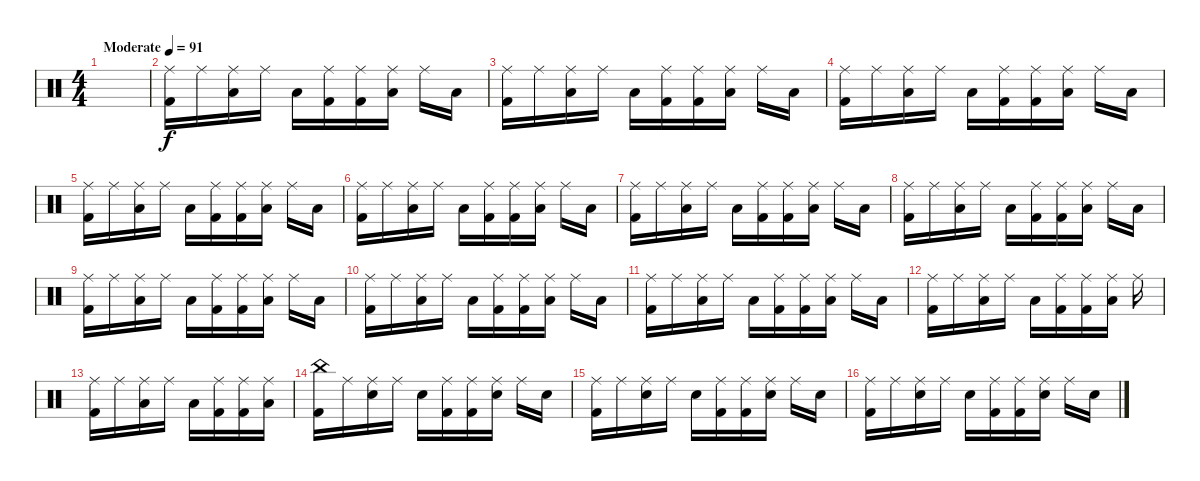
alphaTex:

\track "" {instrument percussion}
\staff {score}
\articulation defaults
\ts (4 4)
\tempo (91 "Moderate")
\clef neutral
\ks c
|
("Ride (middle)" "Kick (hit) 2").16 "Ride (middle)".16 ("Low Floor Tom (hit)" "Ride (middle)").16 "Ride (middle)".16 "Low Floor Tom (hit)".16 ("Ride (middle)" "Kick (hit) 2").16 ("Ride (middle)" "Kick (hit) 2").16 ("Ride (middle)" "Low Floor Tom (hit)").16 "Ride (middle)".16 "Low Floor Tom (hit)".16 |
("Ride (middle)" "Kick (hit) 2").16 "Ride (middle)".16 ("Low Floor Tom (hit)" "Ride (middle)").16 "Ride (middle)".16 "Low Floor Tom (hit)".16 ("Ride (middle)" "Kick (hit) 2").16 ("Ride (middle)" "Kick (hit) 2").16 ("Ride (middle)" "Low Floor Tom (hit)").16 "Ride (middle)".16 "Low Floor Tom (hit)".16 |
("Ride (middle)" "Kick (hit) 2").16 "Ride (middle)".16 ("Ride (middle)" "Low Floor Tom (hit)").16 "Ride (middle)".16 "Low Floor Tom (hit)".16 ("Ride (middle)" "Kick (hit) 2").16 ("Ride (middle)" "Kick (hit) 2").16 ("Ride (middle)" "Low Floor Tom (hit)").16 "Ride (middle)".16 "Low Floor Tom (hit)".16 |
("Kick (hit) 2" "Ride (middle)").16 "Ride (middle)".16 ("Low Floor Tom (hit)" "Ride (middle)").16 "Ride (middle)".16 "Low Floor Tom (hit)".16 ("Kick (hit) 2" "Ride (middle)").16 ("Ride (middle)" "Kick (hit) 2").16 ("Low Floor Tom (hit)" "Ride (middle)").16 "Ride (middle)".16 "Low Floor Tom (hit)".16 |
("Kick (hit) 2" "Ride (middle)").16 "Ride (middle)".16 ("Low Floor Tom (hit)" "Ride (middle)").16 "Ride (middle)".16 "Low Floor Tom (hit)".16 ("Kick (hit) 2" "Ride (middle)").16 ("Ride (middle)" "Kick (hit) 2").16 ("Low Floor Tom (hit)" "Ride (middle)").16 "Ride (middle)".16 "Low Floor Tom (hit)".16 |
("Ride (middle)" "Kick (hit) 2").16 "Ride (middle)".16 ("Low Floor Tom (hit)" "Ride (middle)").16 "Ride (middle)".16 "Low Floor Tom (hit)".16 ("Ride (middle)" "Kick (hit) 2").16 ("Ride (middle)" "Kick (hit) 2").16 ("Ride (middle)" "Low Floor Tom (hit)").16 "Ride (middle)".16 "Low Floor Tom (hit)".16 |
("Ride (middle)" "Kick (hit) 2").16 "Ride (middle)".16 ("Ride (middle)" "Low Floor Tom (hit)").16 "Ride (middle)".16 "Low Floor Tom (hit)".16 ("Kick (hit) 2" "Ride (middle)").16 ("Ride (middle)" "Kick (hit) 2").16 ("Ride (middle)" "Low Floor Tom (hit)").16 "Ride (middle)".16 "Low Floor Tom (hit)".16 |
("Kick (hit) 2" "Ride (middle)").16 "Ride (middle)".16 ("Low Floor Tom (hit)" "Ride (middle)").16 "Ride (middle)".16 "Low Floor Tom (hit)".16 ("Kick (hit) 2" "Ride (middle)").16 ("Ride (middle)" "Kick (hit) 2").16 ("Ride (middle)" "Low Floor Tom (hit)").16 "Ride (middle)".16 "Low Floor Tom (hit)".16 |
("Kick (hit) 2" "Ride (middle)").16 "Ride (middle)".16 ("Ride (middle)" "Low Floor Tom (hit)").16 "Ride (middle)".16 "Low Floor Tom (hit)".16 ("Ride (middle)" "Kick (hit) 2").16 ("Ride (middle)" "Kick (hit) 2").16 ("Low Floor Tom (hit)" "Ride (middle)").16 "Ride (middle)".16 "Low Floor Tom (hit)".16 |
("Kick (hit) 2" "Ride (middle)").16 "Ride (middle)".16 ("Low Floor Tom (hit)" "Ride (middle)").16 "Ride (middle)".16 "Low Floor Tom (hit)".16 ("Kick (hit) 2" "Ride (middle)").16 ("Ride (middle)" "Kick (hit) 2").16 ("Ride (middle)" "Low Floor Tom (hit)").16 "Ride (middle)".16 "Low Floor Tom (hit)".16 |
("Ride (middle)" "Kick (hit) 2").16 "Ride (middle)".16 ("Low Floor Tom (hit)" "Ride (middle)").16 "Ride (middle)".16 "Low Floor Tom (hit)".16 ("Kick (hit) 2" "Ride (middle)").16 ("Ride (middle)" "Kick (hit) 2").16 ("Ride (middle)" "Low Floor Tom (hit)").16 "Ride (middle)".16 |
("Ride (middle)" "Kick (hit) 2").16 "Ride (middle)".16 ("Low Floor Tom (hit)" "Ride (middle)").16 "Ride (middle)".16 "Low Floor Tom (hit)".16 ("Kick (hit) 2" "Ride (middle)").16 ("Ride (middle)" "Kick (hit) 2").16 ("Ride (middle)" "Low Floor Tom (hit)").16 |
("China (hit)" "Kick (hit) 2").16 "Ride (middle)".16 ("Ride (middle)" "Electric Snare (hit)").16 "Ride (middle)".16 "Electric Snare (hit)".16 ("Kick (hit) 2" "Ride (middle)").16 ("Ride (middle)" "Kick (hit) 2").16 ("Electric Snare (hit)" "Ride (middle)").16 "Ride (middle)".16 "Electric Snare (hit)".16 |
("Kick (hit) 2" "Ride (middle)").16 "Ride (middle)".16 ("Ride (middle)" "Electric Snare (hit)").16 "Ride (middle)".16 "Electric Snare (hit)".16 ("Kick (hit) 2" "Ride (middle)").16 ("Kick (hit) 2" "Ride (middle)").16 ("Ride (middle)" "Electric Snare (hit)").16 "Ride (middle)".16 "Electric Snare (hit)".16 |
("Kick (hit) 2" "Ride (middle)").16 "Ride (middle)".16 ("Electric Snare (hit)" "Ride (middle)").16 "Ride (middle)".16 "Electric Snare (hit)".16 ("Kick (hit) 2" "Ride (middle)").16 ("Ride (middle)" "Kick (hit) 2").16 ("Ride (middle)" "Electric Snare (hit)").16 "Ride (middle)".16 "Electric Snare (hit)".16
